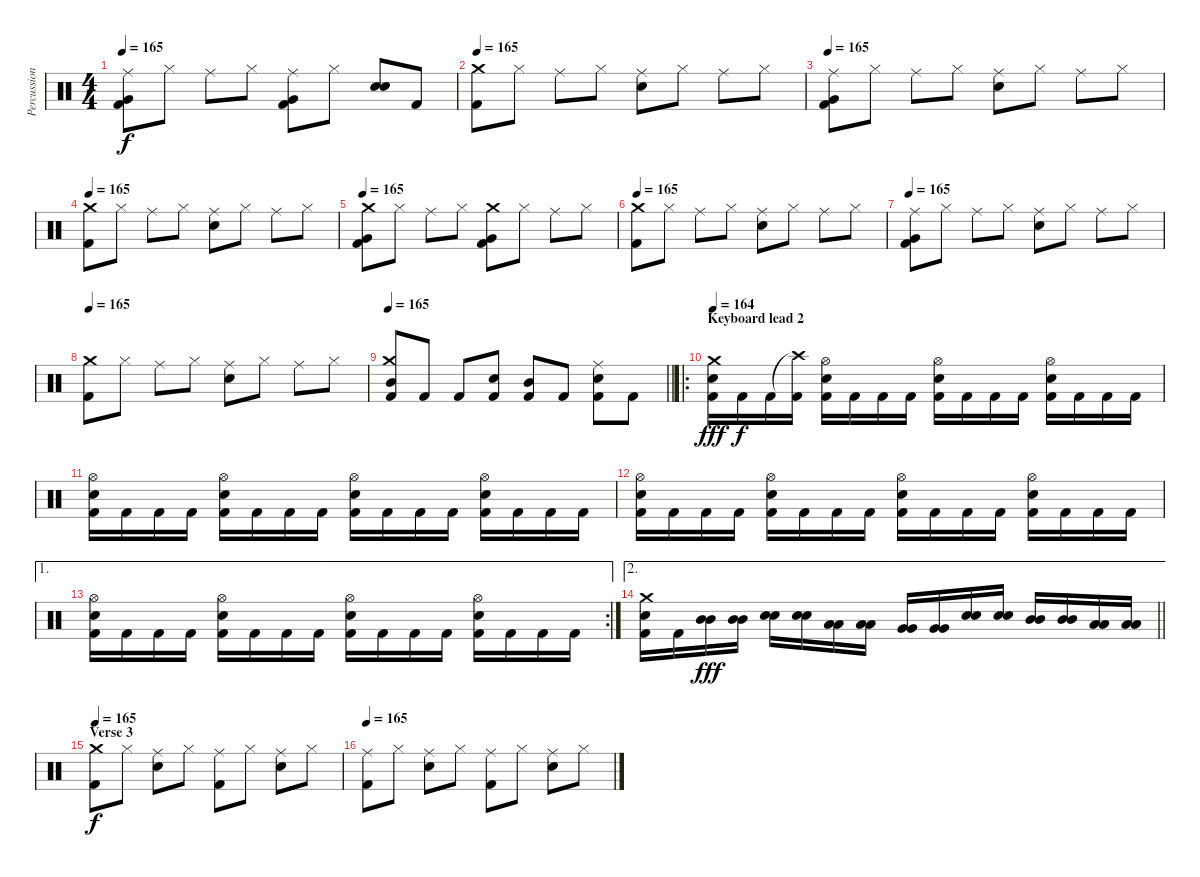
\track ("Percussion" "Percussion") {instrument percussion}
\staff {score}
\articulation defaults
\ts (4 4)
\tempo 165
\clef neutral
\ks c
("Ride (middle)" "Very Low Tom (hit)" "Kick (hit) 2").8{dy f} "Hi-Hat (closed)".8 "Ride (middle)".8 "Hi-Hat (closed)".8 ("Ride (middle)" "Very Low Tom (hit)" "Kick (hit) 2").8 "Hi-Hat (closed)".8 ("Electric Snare (hit)" "Electric Snare (hit)").8{bd 120} "Kick (hit) 2".8 |
\tempo 165
("Crash medium (hit)" "Kick (hit) 2").8 "Hi-Hat (closed)".8 "Ride (middle)".8 "Hi-Hat (closed)".8 ("Ride (middle)" "Electric Snare (hit)").8 "Hi-Hat (closed)".8 "Ride (middle)".8 "Hi-Hat (closed)".8 |
\tempo 165
("Ride (middle)" "Very Low Tom (hit)" "Kick (hit) 2").8 "Hi-Hat (closed)".8 "Ride (middle)".8 "Hi-Hat (closed)".8 ("Ride (middle)" "Electric Snare (hit)").8 "Hi-Hat (closed)".8 "Ride (middle)".8 "Hi-Hat (closed)".8 |
\tempo 165
("Crash medium (hit)" "Kick (hit) 2").8 "Hi-Hat (closed)".8 "Ride (middle)".8 "Hi-Hat (closed)".8 ("Ride (middle)" "Electric Snare (hit)").8 "Hi-Hat (closed)".8 "Ride (middle)".8 "Hi-Hat (closed)".8 |
\tempo 165
("Crash medium (hit)" "Very Low Tom (hit)" "Kick (hit) 2").8 "Hi-Hat (closed)".8 "Ride (middle)".8 "Hi-Hat (closed)".8 ("Crash medium (hit)" "Very Low Tom (hit)" "Kick (hit) 2").8 "Hi-Hat (closed)".8 "Ride (middle)".8 "Hi-Hat (closed)".8 |
\tempo 165
("Crash medium (hit)" "Kick (hit) 2").8 "Hi-Hat (closed)".8 "Ride (middle)".8 "Hi-Hat (closed)".8 ("Ride (middle)" "Electric Snare (hit)").8 "Hi-Hat (closed)".8 "Ride (middle)".8 "Hi-Hat (closed)".8 |
\tempo 165
("Ride (middle)" "Very Low Tom (hit)" "Kick (hit) 2").8 "Hi-Hat (closed)".8 "Ride (middle)".8 "Hi-Hat (closed)".8 ("Ride (middle)" "Electric Snare (hit)").8 "Hi-Hat (closed)".8 "Ride (middle)".8 "Hi-Hat (closed)".8 |
\tempo 165
("Crash medium (hit)" "Kick (hit) 2").8 "Hi-Hat (closed)".8 "Ride (middle)".8 "Hi-Hat (closed)".8 ("Ride (middle)" "Electric Snare (hit)").8 "Hi-Hat (closed)".8 "Ride (middle)".8 "Hi-Hat (closed)".8 |
\tempo 165
\barLineRight lightlight
("Crash medium (hit)" "Mid Tom (hit)" "Kick (hit) 2").8 "Kick (hit) 2".8 "Kick (hit) 2".8 ("Electric Snare (hit)" "Kick (hit) 2").8 ("Mid Tom (hit)" "Kick (hit) 2").8 "Kick (hit) 2".8 ("Ride (middle)" "Electric Snare (hit)" "Kick (hit) 2").8 "Kick (hit) 2".8 |
\ro
\section ("" "Keyboard lead 2")
\tempo 164
("Crash medium (hit)" "Electric Snare (hit)" "Kick (hit) 2").16{dy fff} "Kick (hit) 2".16{dy f} "Kick (hit) 2".16 ("Crash high (hit)"{t} "Kick (hit) 2").16 ("Hi-Hat (open)" "Electric Snare (hit)" "Kick (hit) 2").16 "Kick (hit) 2".16 "Kick (hit) 2".16 "Kick (hit) 2".16 ("Hi-Hat (open)" "Electric Snare (hit)" "Kick (hit) 2").16 "Kick (hit) 2".16 "Kick (hit) 2".16 "Kick (hit) 2".16 ("Hi-Hat (open)" "Electric Snare (hit)" "Kick (hit) 2").16 "Kick (hit) 2".16 "Kick (hit) 2".16 "Kick (hit) 2".16 |
("Hi-Hat (open)" "Electric Snare (hit)" "Kick (hit) 2").16 "Kick (hit) 2".16 "Kick (hit) 2".16 "Kick (hit) 2".16 ("Hi-Hat (open)" "Electric Snare (hit)" "Kick (hit) 2").16 "Kick (hit) 2".16 "Kick (hit) 2".16 "Kick (hit) 2".16 ("Hi-Hat (open)" "Electric Snare (hit)" "Kick (hit) 2").16 "Kick (hit) 2".16 "Kick (hit) 2".16 "Kick (hit) 2".16 ("Hi-Hat (open)" "Electric Snare (hit)" "Kick (hit) 2").16 "Kick (hit) 2".16 "Kick (hit) 2".16 "Kick (hit) 2".16 |
("Hi-Hat (open)" "Electric Snare (hit)" "Kick (hit) 2").16 "Kick (hit) 2".16 "Kick (hit) 2".16 "Kick (hit) 2".16 ("Hi-Hat (open)" "Electric Snare (hit)" "Kick (hit) 2").16 "Kick (hit) 2".16 "Kick (hit) 2".16 "Kick (hit) 2".16 ("Hi-Hat (open)" "Electric Snare (hit)" "Kick (hit) 2").16 "Kick (hit) 2".16 "Kick (hit) 2".16 "Kick (hit) 2".16 ("Hi-Hat (open)" "Electric Snare (hit)" "Kick (hit) 2").16 "Kick (hit) 2".16 "Kick (hit) 2".16 "Kick (hit) 2".16 |
\ae 1
\rc 2
("Hi-Hat (open)" "Electric Snare (hit)" "Kick (hit) 2").16 "Kick (hit) 2".16 "Kick (hit) 2".16 "Kick (hit) 2".16 ("Hi-Hat (open)" "Electric Snare (hit)" "Kick (hit) 2").16 "Kick (hit) 2".16 "Kick (hit) 2".16 "Kick (hit) 2".16 ("Hi-Hat (open)" "Electric Snare (hit)" "Kick (hit) 2").16 "Kick (hit) 2".16 "Kick (hit) 2".16 "Kick (hit) 2".16 ("Hi-Hat (open)" "Electric Snare (hit)" "Kick (hit) 2").16 "Kick (hit) 2".16 "Kick (hit) 2".16 "Kick (hit) 2".16 |
\ae 2
\barLineRight lightlight
("Crash medium (hit)" "Electric Snare (hit)" "Kick (hit) 2").16 "Kick (hit) 2".16 ("Mid Tom (hit)" "Mid Tom (hit)").16{dy fff} ("Mid Tom (hit)" "Mid Tom (hit)").16 ("Electric Snare (hit)" "Electric Snare (hit)").16 ("Electric Snare (hit)" "Electric Snare (hit)").16 ("Low Tom (hit)" "Low Tom (hit)").16 ("Low Tom (hit)" "Low Tom (hit)").16 ("Very Low Tom (hit)" "Very Low Tom (hit)").16 ("Very Low Tom (hit)" "Very Low Tom (hit)").16 ("Electric Snare (hit)" "Electric Snare (hit)").16 ("Electric Snare (hit)" "Electric Snare (hit)").16 ("Mid Tom (hit)" "Mid Tom (hit)").16 ("Mid Tom (hit)" "Mid Tom (hit)").16 ("Low Tom (hit)" "Low Tom (hit)").16 ("Low Tom (hit)" "Low Tom (hit)").16 |
\section ("" "Verse 3")
\tempo 165
("Crash medium (hit)" "Kick (hit) 2").8{dy f} "Hi-Hat (closed)".8 ("Ride (middle)" "Electric Snare (hit)").8 "Hi-Hat (closed)".8 ("Ride (middle)" "Kick (hit) 2").8 "Hi-Hat (closed)".8 ("Ride (middle)" "Electric Snare (hit)").8 "Hi-Hat (closed)".8 |
\tempo 165
("Ride (middle)" "Kick (hit) 2").8 "Hi-Hat (closed)".8 ("Ride (middle)" "Electric Snare (hit)").8 "Hi-Hat (closed)".8 ("Ride (middle)" "Kick (hit) 2").8 "Hi-Hat (closed)".8 ("Ride (middle)" "Electric Snare (hit)").8 "Hi-Hat (closed)".8
